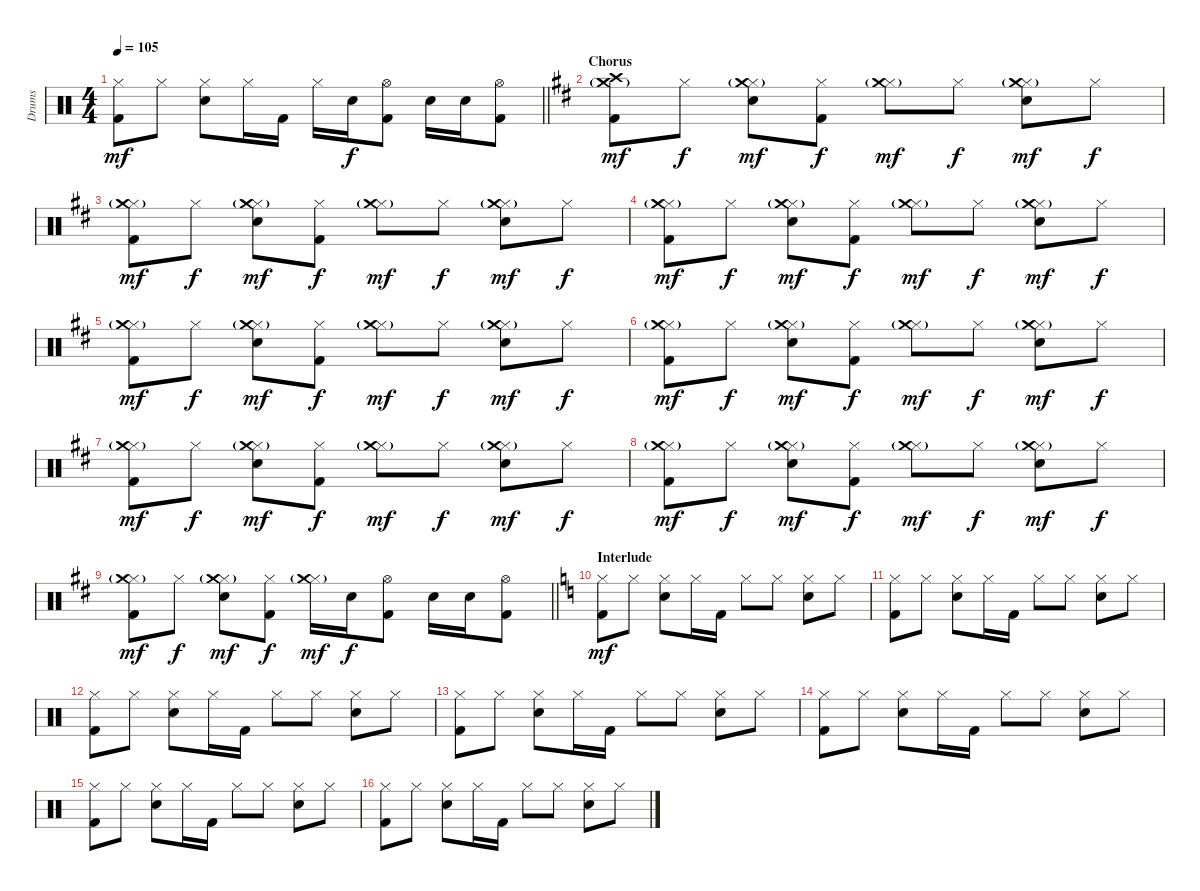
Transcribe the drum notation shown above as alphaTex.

\track ("Drums" "Drums") {instrument percussion}
\staff {score}
\articulation defaults
\ts (4 4)
\tempo 105
\clef neutral
\barLineRight lightlight
\ks aminor
("Hi-Hat (closed)" "Kick (hit) 2").8{dy mf} "Hi-Hat (closed)".8 ("Hi-Hat (closed)" "Electric Snare (hit)").8 "Hi-Hat (closed)".16 "Kick (hit) 2".16 "Hi-Hat (closed)".16 "Electric Snare (hit)".16{dy f} ("Hi-Hat (open)" "Kick (hit) 2").8 "Electric Snare (hit)".16 "Electric Snare (hit)".16 ("Hi-Hat (open)" "Kick (hit) 2").8 |
\section ("" "Chorus")
\ks bminor
("Crash high (hit)" "Crash medium (hit)"{g} "Kick (hit) 2").8{dy mf} "Hi-Hat (closed)".8{dy f} ("Hi-Hat (closed)" "Crash medium (hit)"{g} "Electric Snare (hit)").8{dy mf} ("Hi-Hat (closed)" "Kick (hit) 2").8{dy f} ("Hi-Hat (closed)" "Crash medium (hit)"{g}).8{dy mf} "Hi-Hat (closed)".8{dy f} ("Hi-Hat (closed)" "Crash medium (hit)"{g} "Electric Snare (hit)").8{dy mf} "Hi-Hat (closed)".8{dy f} |
("Hi-Hat (closed)" "Crash medium (hit)"{g} "Kick (hit) 2").8{dy mf} "Hi-Hat (closed)".8{dy f} ("Hi-Hat (closed)" "Crash medium (hit)"{g} "Electric Snare (hit)").8{dy mf} ("Hi-Hat (closed)" "Kick (hit) 2").8{dy f} ("Hi-Hat (closed)" "Crash medium (hit)"{g}).8{dy mf} "Hi-Hat (closed)".8{dy f} ("Hi-Hat (closed)" "Crash medium (hit)"{g} "Electric Snare (hit)").8{dy mf} "Hi-Hat (closed)".8{dy f} |
("Hi-Hat (closed)" "Crash medium (hit)"{g} "Kick (hit) 2").8{dy mf} "Hi-Hat (closed)".8{dy f} ("Hi-Hat (closed)" "Crash medium (hit)"{g} "Electric Snare (hit)").8{dy mf} ("Hi-Hat (closed)" "Kick (hit) 2").8{dy f} ("Hi-Hat (closed)" "Crash medium (hit)"{g}).8{dy mf} "Hi-Hat (closed)".8{dy f} ("Hi-Hat (closed)" "Crash medium (hit)"{g} "Electric Snare (hit)").8{dy mf} "Hi-Hat (closed)".8{dy f} |
("Hi-Hat (closed)" "Crash medium (hit)"{g} "Kick (hit) 2").8{dy mf} "Hi-Hat (closed)".8{dy f} ("Hi-Hat (closed)" "Crash medium (hit)"{g} "Electric Snare (hit)").8{dy mf} ("Hi-Hat (closed)" "Kick (hit) 2").8{dy f} ("Hi-Hat (closed)" "Crash medium (hit)"{g}).8{dy mf} "Hi-Hat (closed)".8{dy f} ("Hi-Hat (closed)" "Crash medium (hit)"{g} "Electric Snare (hit)").8{dy mf} "Hi-Hat (closed)".8{dy f} |
("Hi-Hat (closed)" "Crash medium (hit)"{g} "Kick (hit) 2").8{dy mf} "Hi-Hat (closed)".8{dy f} ("Hi-Hat (closed)" "Crash medium (hit)"{g} "Electric Snare (hit)").8{dy mf} ("Hi-Hat (closed)" "Kick (hit) 2").8{dy f} ("Hi-Hat (closed)" "Crash medium (hit)"{g}).8{dy mf} "Hi-Hat (closed)".8{dy f} ("Hi-Hat (closed)" "Crash medium (hit)"{g} "Electric Snare (hit)").8{dy mf} "Hi-Hat (closed)".8{dy f} |
("Hi-Hat (closed)" "Crash medium (hit)"{g} "Kick (hit) 2").8{dy mf} "Hi-Hat (closed)".8{dy f} ("Hi-Hat (closed)" "Crash medium (hit)"{g} "Electric Snare (hit)").8{dy mf} ("Hi-Hat (closed)" "Kick (hit) 2").8{dy f} ("Hi-Hat (closed)" "Crash medium (hit)"{g}).8{dy mf} "Hi-Hat (closed)".8{dy f} ("Hi-Hat (closed)" "Crash medium (hit)"{g} "Electric Snare (hit)").8{dy mf} "Hi-Hat (closed)".8{dy f} |
("Hi-Hat (closed)" "Crash medium (hit)"{g} "Kick (hit) 2").8{dy mf} "Hi-Hat (closed)".8{dy f} ("Hi-Hat (closed)" "Crash medium (hit)"{g} "Electric Snare (hit)").8{dy mf} ("Hi-Hat (closed)" "Kick (hit) 2").8{dy f} ("Hi-Hat (closed)" "Crash medium (hit)"{g}).8{dy mf} "Hi-Hat (closed)".8{dy f} ("Hi-Hat (closed)" "Crash medium (hit)"{g} "Electric Snare (hit)").8{dy mf} "Hi-Hat (closed)".8{dy f} |
\barLineRight lightlight
("Hi-Hat (closed)" "Crash medium (hit)"{g} "Kick (hit) 2").8{dy mf} "Hi-Hat (closed)".8{dy f} ("Hi-Hat (closed)" "Crash medium (hit)"{g} "Electric Snare (hit)").8{dy mf} ("Hi-Hat (closed)" "Kick (hit) 2").8{dy f} ("Hi-Hat (closed)" "Crash medium (hit)"{g}).16{dy mf} "Electric Snare (hit)".16{dy f} ("Hi-Hat (open)" "Kick (hit) 2").8 "Electric Snare (hit)".16 "Electric Snare (hit)".16 ("Hi-Hat (open)" "Kick (hit) 2").8 |
\section ("" "Interlude")
\ks aminor
("Hi-Hat (closed)" "Kick (hit) 2").8{dy mf} "Hi-Hat (closed)".8 ("Hi-Hat (closed)" "Electric Snare (hit)").8 "Hi-Hat (closed)".16 "Kick (hit) 2".16 "Hi-Hat (closed)".8 "Hi-Hat (closed)".8 ("Hi-Hat (closed)" "Electric Snare (hit)").8 "Hi-Hat (closed)".8 |
("Hi-Hat (closed)" "Kick (hit) 2").8 "Hi-Hat (closed)".8 ("Hi-Hat (closed)" "Electric Snare (hit)").8 "Hi-Hat (closed)".16 "Kick (hit) 2".16 "Hi-Hat (closed)".8 "Hi-Hat (closed)".8 ("Hi-Hat (closed)" "Electric Snare (hit)").8 "Hi-Hat (closed)".8 |
("Hi-Hat (closed)" "Kick (hit) 2").8 "Hi-Hat (closed)".8 ("Hi-Hat (closed)" "Electric Snare (hit)").8 "Hi-Hat (closed)".16 "Kick (hit) 2".16 "Hi-Hat (closed)".8 "Hi-Hat (closed)".8 ("Hi-Hat (closed)" "Electric Snare (hit)").8 "Hi-Hat (closed)".8 |
("Hi-Hat (closed)" "Kick (hit) 2").8 "Hi-Hat (closed)".8 ("Hi-Hat (closed)" "Electric Snare (hit)").8 "Hi-Hat (closed)".16 "Kick (hit) 2".16 "Hi-Hat (closed)".8 "Hi-Hat (closed)".8 ("Hi-Hat (closed)" "Electric Snare (hit)").8 "Hi-Hat (closed)".8 |
("Hi-Hat (closed)" "Kick (hit) 2").8 "Hi-Hat (closed)".8 ("Hi-Hat (closed)" "Electric Snare (hit)").8 "Hi-Hat (closed)".16 "Kick (hit) 2".16 "Hi-Hat (closed)".8 "Hi-Hat (closed)".8 ("Hi-Hat (closed)" "Electric Snare (hit)").8 "Hi-Hat (closed)".8 |
("Hi-Hat (closed)" "Kick (hit) 2").8 "Hi-Hat (closed)".8 ("Hi-Hat (closed)" "Electric Snare (hit)").8 "Hi-Hat (closed)".16 "Kick (hit) 2".16 "Hi-Hat (closed)".8 "Hi-Hat (closed)".8 ("Hi-Hat (closed)" "Electric Snare (hit)").8 "Hi-Hat (closed)".8 |
("Hi-Hat (closed)" "Kick (hit) 2").8 "Hi-Hat (closed)".8 ("Hi-Hat (closed)" "Electric Snare (hit)").8 "Hi-Hat (closed)".16 "Kick (hit) 2".16 "Hi-Hat (closed)".8 "Hi-Hat (closed)".8 ("Hi-Hat (closed)" "Electric Snare (hit)").8 "Hi-Hat (closed)".8
